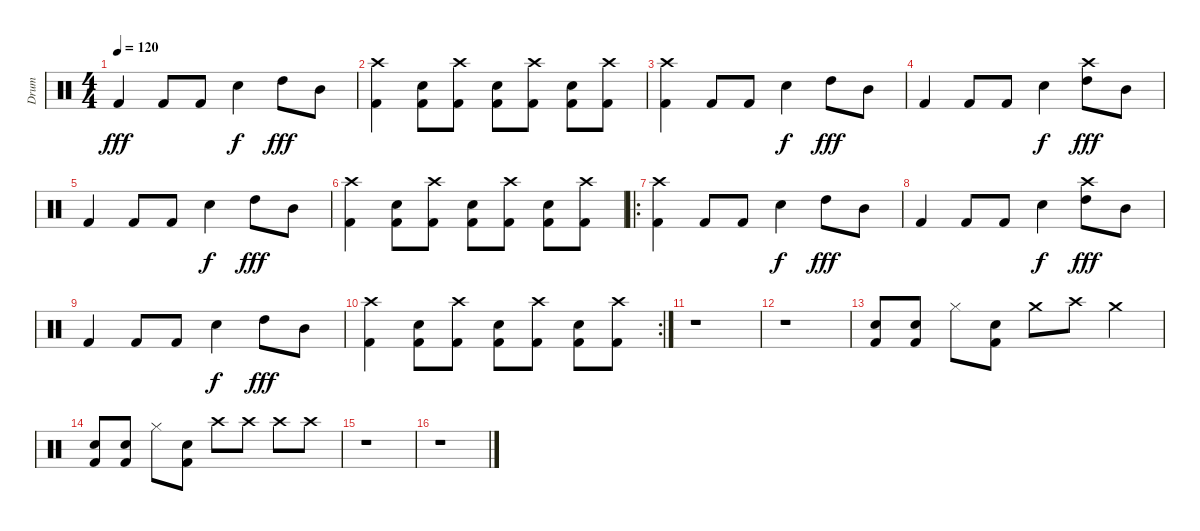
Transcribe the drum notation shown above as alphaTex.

\track ("Drum" "Drum") {instrument percussion}
\staff {score}
\articulation defaults
\ts (4 4)
\tempo 120
\clef neutral
\ks c "Kick (hit) 2".4{dy fff} "Kick (hit) 2".8 "Kick (hit) 2".8 "Electric Snare (hit)".4{dy f} "High Tom (hit)".8{dy fff} "Mid Tom (hit)".8
|
("Crash high (hit)" "Kick (hit) 2").4 ("Electric Snare (hit)" "Kick (hit) 2").8 ("Crash high (hit)" "Kick (hit) 2").8 ("Electric Snare (hit)" "Kick (hit) 2").8 ("Crash high (hit)" "Kick (hit) 2").8 ("Electric Snare (hit)" "Kick (hit) 2").8 ("Crash high (hit)" "Kick (hit) 2").8 |
("Crash high (hit)" "Kick (hit) 2").4 "Kick (hit) 2".8 "Kick (hit) 2".8 "Electric Snare (hit)".4{dy f} "High Tom (hit)".8{dy fff} "Mid Tom (hit)".8 |
"Kick (hit) 2".4 "Kick (hit) 2".8 "Kick (hit) 2".8 "Electric Snare (hit)".4{dy f} ("Crash high (hit)" "High Tom (hit)").8{dy fff} "Mid Tom (hit)".8 |
"Kick (hit) 2".4 "Kick (hit) 2".8 "Kick (hit) 2".8 "Electric Snare (hit)".4{dy f} "High Tom (hit)".8{dy fff} "Mid Tom (hit)".8 |
("Crash high (hit)" "Kick (hit) 2").4 ("Electric Snare (hit)" "Kick (hit) 2").8 ("Crash high (hit)" "Kick (hit) 2").8 ("Electric Snare (hit)" "Kick (hit) 2").8 ("Crash high (hit)" "Kick (hit) 2").8 ("Electric Snare (hit)" "Kick (hit) 2").8 ("Crash high (hit)" "Kick (hit) 2").8 |
\ro
("Crash high (hit)" "Kick (hit) 2").4 "Kick (hit) 2".8 "Kick (hit) 2".8 "Electric Snare (hit)".4{dy f} "High Tom (hit)".8{dy fff} "Mid Tom (hit)".8 |
"Kick (hit) 2".4 "Kick (hit) 2".8 "Kick (hit) 2".8 "Electric Snare (hit)".4{dy f} ("Crash high (hit)" "High Tom (hit)").8{dy fff} "Mid Tom (hit)".8 |
"Kick (hit) 2".4 "Kick (hit) 2".8 "Kick (hit) 2".8 "Electric Snare (hit)".4{dy f} "High Tom (hit)".8{dy fff} "Mid Tom (hit)".8 |
\rc 2
("Crash high (hit)" "Kick (hit) 2").4 ("Electric Snare (hit)" "Kick (hit) 2").8 ("Crash high (hit)" "Kick (hit) 2").8 ("Electric Snare (hit)" "Kick (hit) 2").8 ("Crash high (hit)" "Kick (hit) 2").8 ("Electric Snare (hit)" "Kick (hit) 2").8 ("Crash high (hit)" "Kick (hit) 2").8 |
r.1 |
r.1 |
("Electric Snare (hit)" "Kick (hit) 2").8 ("Electric Snare (hit)" "Kick (hit) 2").8 "Hi-Hat (closed)".8 ("Electric Snare (hit)" "Kick (hit) 2").8 "Crash medium (hit)".8 "Crash high (hit)".8 "Crash medium (hit)".4 |
("Electric Snare (hit)" "Kick (hit) 2").8 ("Electric Snare (hit)" "Kick (hit) 2").8 "Hi-Hat (closed)".8 ("Electric Snare (hit)" "Kick (hit) 2").8 "Crash high (hit)".8 "Crash high (hit)".8 "Crash high (hit)".8 "Crash high (hit)".8 |
r.1 |
r.1
